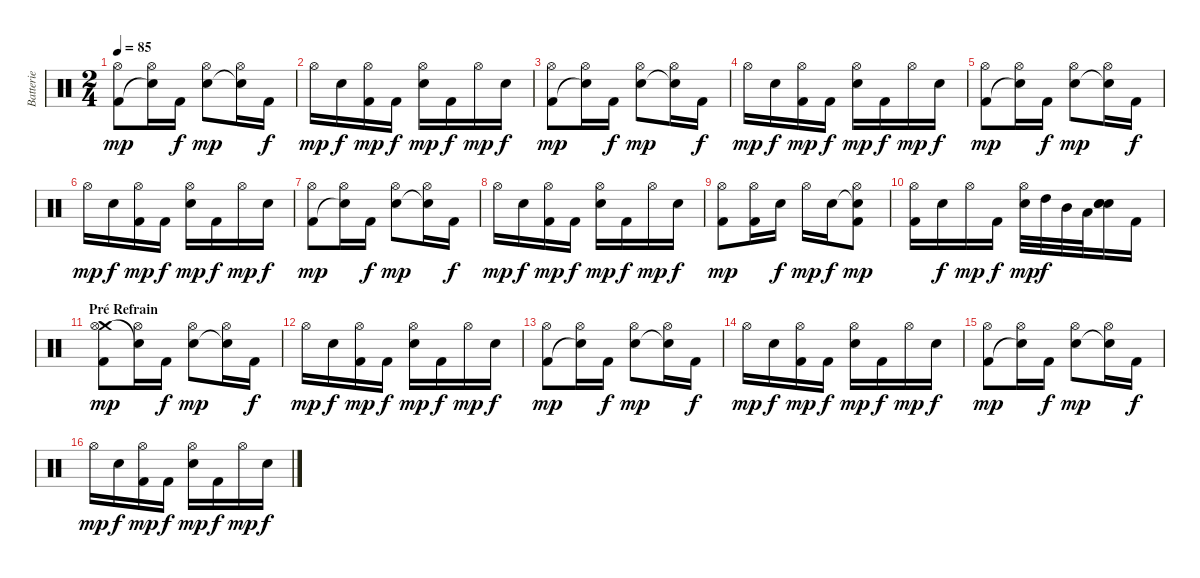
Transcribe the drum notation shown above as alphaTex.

\track ("Batterie" "Batterie") {instrument percussion}
\staff {score}
\articulation defaults
\ts (2 4)
\tempo 85
\clef neutral
\ks c
("Hi-Hat (open)" "Kick (hit) 2").8{dy mp} ("Hi-Hat (open)" "Snare (hit)"{t}).16 "Kick (hit) 2".16{dy f} ("Electric Snare (hit)" "Hi-Hat (open)").8{dy mp} ("Snare (hit)"{t} "Hi-Hat (open)").16 "Kick (hit) 2".16{dy f} |
"Hi-Hat (open)".16{dy mp} "Electric Snare (hit)".16{dy f} ("Hi-Hat (open)" "Kick (hit) 2").16{dy mp} "Kick (hit) 2".16{dy f} ("Electric Snare (hit)" "Hi-Hat (open)").16{dy mp} "Kick (hit) 2".16{dy f} "Hi-Hat (open)".16{dy mp} "Electric Snare (hit)".16{dy f} |
("Hi-Hat (open)" "Kick (hit) 2").8{dy mp} ("Hi-Hat (open)" "Snare (hit)"{t}).16 "Kick (hit) 2".16{dy f} ("Electric Snare (hit)" "Hi-Hat (open)").8{dy mp} ("Snare (hit)"{t} "Hi-Hat (open)").16 "Kick (hit) 2".16{dy f} |
"Hi-Hat (open)".16{dy mp} "Electric Snare (hit)".16{dy f} ("Hi-Hat (open)" "Kick (hit) 2").16{dy mp} "Kick (hit) 2".16{dy f} ("Electric Snare (hit)" "Hi-Hat (open)").16{dy mp} "Kick (hit) 2".16{dy f} "Hi-Hat (open)".16{dy mp} "Electric Snare (hit)".16{dy f} |
("Hi-Hat (open)" "Kick (hit) 2").8{dy mp} ("Hi-Hat (open)" "Snare (hit)"{t}).16 "Kick (hit) 2".16{dy f} ("Electric Snare (hit)" "Hi-Hat (open)").8{dy mp} ("Snare (hit)"{t} "Hi-Hat (open)").16 "Kick (hit) 2".16{dy f} |
"Hi-Hat (open)".16{dy mp} "Electric Snare (hit)".16{dy f} ("Hi-Hat (open)" "Kick (hit) 2").16{dy mp} "Kick (hit) 2".16{dy f} ("Electric Snare (hit)" "Hi-Hat (open)").16{dy mp} "Kick (hit) 2".16{dy f} "Hi-Hat (open)".16{dy mp} "Electric Snare (hit)".16{dy f} |
("Hi-Hat (open)" "Kick (hit) 2").8{dy mp} ("Hi-Hat (open)" "Snare (hit)"{t}).16 "Kick (hit) 2".16{dy f} ("Electric Snare (hit)" "Hi-Hat (open)").8{dy mp} ("Snare (hit)"{t} "Hi-Hat (open)").16 "Kick (hit) 2".16{dy f} |
"Hi-Hat (open)".16{dy mp} "Electric Snare (hit)".16{dy f} ("Hi-Hat (open)" "Kick (hit) 2").16{dy mp} "Kick (hit) 2".16{dy f} ("Electric Snare (hit)" "Hi-Hat (open)").16{dy mp} "Kick (hit) 2".16{dy f} "Hi-Hat (open)".16{dy mp} "Electric Snare (hit)".16{dy f} |
("Hi-Hat (open)" "Kick (hit) 2").8{dy mp} ("Hi-Hat (open)" "Kick (hit) 2").16 "Electric Snare (hit)".16{dy f} "Hi-Hat (open)".16{dy mp} "Electric Snare (hit)".16{dy f} ("Snare (hit)"{t} "Hi-Hat (open)" "Kick (hit) 2").8{dy mp} |
("Hi-Hat (open)" "Kick (hit) 2").16 "Electric Snare (hit)".16{dy f} "Hi-Hat (open)".16{dy mp} "Kick (hit) 2".16{dy f} ("Electric Snare (hit)" "Hi-Hat (open)").32{dy mp} "High Tom (hit)".32{dy f} "Mid Tom (hit)".32 "Low Tom (hit)".32 ("Electric Snare (hit)" "Electric Snare (hit)" "Electric Snare (hit)").16 "Kick (hit) 2".16 |
\section ("" "Pré Refrain")
("Crash medium (hit)" "Hi-Hat (open)" "Kick (hit) 2").8{dy mp} ("Hi-Hat (open)" "Snare (hit)"{t}).16 "Kick (hit) 2".16{dy f} ("Electric Snare (hit)" "Hi-Hat (open)").8{dy mp} ("Snare (hit)"{t} "Hi-Hat (open)").16 "Kick (hit) 2".16{dy f} |
"Hi-Hat (open)".16{dy mp} "Electric Snare (hit)".16{dy f} ("Hi-Hat (open)" "Kick (hit) 2").16{dy mp} "Kick (hit) 2".16{dy f} ("Electric Snare (hit)" "Hi-Hat (open)").16{dy mp} "Kick (hit) 2".16{dy f} "Hi-Hat (open)".16{dy mp} "Electric Snare (hit)".16{dy f} |
("Hi-Hat (open)" "Kick (hit) 2").8{dy mp} ("Hi-Hat (open)" "Snare (hit)"{t}).16 "Kick (hit) 2".16{dy f} ("Electric Snare (hit)" "Hi-Hat (open)").8{dy mp} ("Snare (hit)"{t} "Hi-Hat (open)").16 "Kick (hit) 2".16{dy f} |
"Hi-Hat (open)".16{dy mp} "Electric Snare (hit)".16{dy f} ("Hi-Hat (open)" "Kick (hit) 2").16{dy mp} "Kick (hit) 2".16{dy f} ("Electric Snare (hit)" "Hi-Hat (open)").16{dy mp} "Kick (hit) 2".16{dy f} "Hi-Hat (open)".16{dy mp} "Electric Snare (hit)".16{dy f} |
("Hi-Hat (open)" "Kick (hit) 2").8{dy mp} ("Hi-Hat (open)" "Snare (hit)"{t}).16 "Kick (hit) 2".16{dy f} ("Electric Snare (hit)" "Hi-Hat (open)").8{dy mp} ("Snare (hit)"{t} "Hi-Hat (open)").16 "Kick (hit) 2".16{dy f} |
"Hi-Hat (open)".16{dy mp} "Electric Snare (hit)".16{dy f} ("Hi-Hat (open)" "Kick (hit) 2").16{dy mp} "Kick (hit) 2".16{dy f} ("Electric Snare (hit)" "Hi-Hat (open)").16{dy mp} "Kick (hit) 2".16{dy f} "Hi-Hat (open)".16{dy mp} "Electric Snare (hit)".16{dy f}
